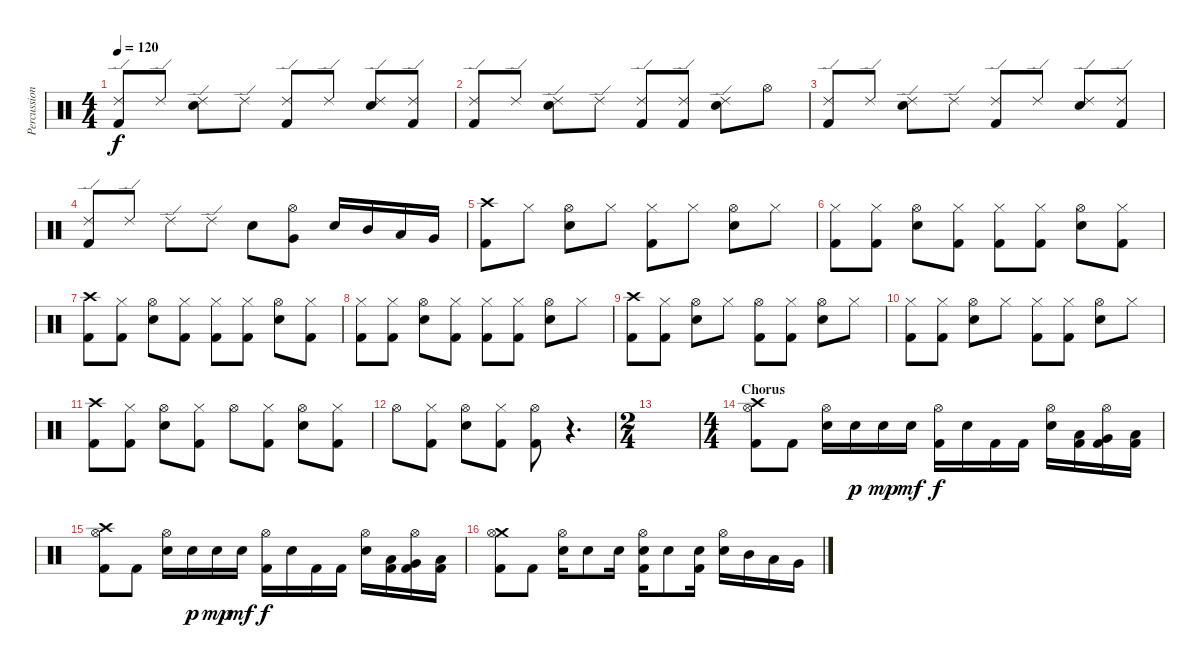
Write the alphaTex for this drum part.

\track ("Percussion" "Percussion") {instrument percussion}
\staff {score}
\articulation defaults
\ts (4 4)
\tempo 120
\clef neutral
\ks c
("Ride (edge) 2" "Kick (hit) 2").8{dy f} "Ride (edge) 2".8 ("Ride (edge) 2" "Electric Snare (hit)").8 "Ride (edge) 2".8 ("Ride (edge) 2" "Kick (hit) 2").8 "Ride (edge) 2".8 ("Ride (edge) 2" "Electric Snare (hit)").8 ("Ride (edge) 2" "Kick (hit) 2").8 |
("Ride (edge) 2" "Kick (hit) 2").8 "Ride (edge) 2".8 ("Ride (edge) 2" "Electric Snare (hit)").8 "Ride (edge) 2".8 ("Ride (edge) 2" "Kick (hit) 2").8 ("Ride (edge) 2" "Kick (hit) 2").8 ("Ride (edge) 2" "Electric Snare (hit)").8 "Hi-Hat (open)".8 |
("Ride (edge) 2" "Kick (hit) 2").8 "Ride (edge) 2".8 ("Ride (edge) 2" "Electric Snare (hit)").8 "Ride (edge) 2".8 ("Ride (edge) 2" "Kick (hit) 2").8 "Ride (edge) 2".8 ("Ride (edge) 2" "Electric Snare (hit)").8 ("Ride (edge) 2" "Kick (hit) 2").8 |
("Ride (edge) 2" "Kick (hit) 2").8 "Ride (edge) 2".8 "Ride (edge) 2".8 "Ride (edge) 2".8 "Electric Snare (hit)".8 ("Hi-Hat (open)" "Very Low Tom (hit)").8 "Electric Snare (hit)".16 "Mid Tom (hit)".16 "Low Tom (hit)".16 "Very Low Tom (hit)".16 |
("Crash high (hit)" "Kick (hit) 2").8 "Hi-Hat (closed)".8 ("Hi-Hat (open)" "Electric Snare (hit)").8 "Hi-Hat (closed)".8 ("Hi-Hat (closed)" "Kick (hit) 2").8 "Hi-Hat (closed)".8 ("Hi-Hat (open)" "Electric Snare (hit)").8 "Hi-Hat (closed)".8 |
("Hi-Hat (closed)" "Kick (hit) 2").8 ("Hi-Hat (closed)" "Kick (hit) 2").8 ("Hi-Hat (open)" "Electric Snare (hit)").8 ("Hi-Hat (closed)" "Kick (hit) 2").8 ("Hi-Hat (closed)" "Kick (hit) 2").8 ("Hi-Hat (closed)" "Kick (hit) 2").8 ("Hi-Hat (open)" "Electric Snare (hit)").8 ("Hi-Hat (closed)" "Kick (hit) 2").8 |
("Crash high (hit)" "Kick (hit) 2").8 ("Hi-Hat (closed)" "Kick (hit) 2").8 ("Hi-Hat (open)" "Electric Snare (hit)").8 ("Hi-Hat (closed)" "Kick (hit) 2").8 ("Hi-Hat (closed)" "Kick (hit) 2").8 ("Hi-Hat (closed)" "Kick (hit) 2").8 ("Hi-Hat (open)" "Electric Snare (hit)").8 ("Hi-Hat (closed)" "Kick (hit) 2").8 |
("Hi-Hat (closed)" "Kick (hit) 2").8 ("Hi-Hat (closed)" "Kick (hit) 2").8 ("Hi-Hat (open)" "Electric Snare (hit)").8 ("Hi-Hat (closed)" "Kick (hit) 2").8 ("Hi-Hat (closed)" "Kick (hit) 2").8 ("Hi-Hat (closed)" "Kick (hit) 2").8 ("Hi-Hat (open)" "Electric Snare (hit)").8 "Hi-Hat (closed)".8 |
("Crash high (hit)" "Kick (hit) 2").8 ("Hi-Hat (closed)" "Kick (hit) 2").8 ("Hi-Hat (open)" "Electric Snare (hit)").8 "Hi-Hat (closed)".8 ("Hi-Hat (open)" "Kick (hit) 2").8 ("Hi-Hat (closed)" "Kick (hit) 2").8 ("Hi-Hat (open)" "Electric Snare (hit)").8 "Hi-Hat (closed)".8 |
("Hi-Hat (closed)" "Kick (hit) 2").8 ("Hi-Hat (closed)" "Kick (hit) 2").8 ("Hi-Hat (open)" "Electric Snare (hit)").8 "Hi-Hat (closed)".8 ("Hi-Hat (closed)" "Kick (hit) 2").8 ("Hi-Hat (closed)" "Kick (hit) 2").8 ("Hi-Hat (open)" "Electric Snare (hit)").8 "Hi-Hat (closed)".8 |
("Crash high (hit)" "Kick (hit) 2").8 ("Hi-Hat (closed)" "Kick (hit) 2").8 ("Hi-Hat (open)" "Electric Snare (hit)").8 ("Hi-Hat (closed)" "Kick (hit) 2").8 "Hi-Hat (open)".8 ("Hi-Hat (closed)" "Kick (hit) 2").8 ("Hi-Hat (open)" "Electric Snare (hit)").8 ("Hi-Hat (closed)" "Kick (hit) 2").8 |
"Hi-Hat (open)".8 ("Hi-Hat (closed)" "Kick (hit) 2").8 ("Hi-Hat (open)" "Electric Snare (hit)").8 ("Hi-Hat (closed)" "Kick (hit) 2").8 ("Hi-Hat (open)" "Kick (hit) 2").8 r.4{d} |
\ts (2 4)
|
\ts (4 4)
\section ("" "Chorus")
("Crash high (hit)" "Hi-Hat (open)" "Kick (hit) 2").8 "Kick (hit) 2".8 ("Hi-Hat (open)" "Electric Snare (hit)").16 "Electric Snare (hit)".16{dy p} "Electric Snare (hit)".16{dy mp} "Electric Snare (hit)".16{dy mf} ("Hi-Hat (open)" "Kick (hit) 2").16{dy f} "Electric Snare (hit)".16 "Kick (hit) 2".16 "Kick (hit) 2".16 ("Hi-Hat (open)" "Electric Snare (hit)").16 ("Low Tom (hit)" "Kick (hit) 2").16 ("Hi-Hat (open)" "Very Low Tom (hit)" "Kick (hit) 2").16 ("Low Floor Tom (hit)" "Kick (hit) 2").16 |
("Crash high (hit)" "Hi-Hat (open)" "Kick (hit) 2").8 "Kick (hit) 2".8 ("Hi-Hat (open)" "Electric Snare (hit)").16 "Electric Snare (hit)".16{dy p} "Electric Snare (hit)".16{dy mp} "Electric Snare (hit)".16{dy mf} ("Hi-Hat (open)" "Kick (hit) 2").16{dy f} "Electric Snare (hit)".16 "Kick (hit) 2".16 "Kick (hit) 2".16 ("Hi-Hat (open)" "Electric Snare (hit)").16 ("Low Tom (hit)" "Kick (hit) 2").16 ("Hi-Hat (open)" "Very Low Tom (hit)" "Kick (hit) 2").16 ("Low Floor Tom (hit)" "Kick (hit) 2").16 |
("Crash medium (hit)" "Hi-Hat (open)" "Kick (hit) 2").8 "Kick (hit) 2".8 ("Hi-Hat (open)" "Electric Snare (hit)").16 "Electric Snare (hit)".8 "Electric Snare (hit)".16 ("Hi-Hat (open)" "Electric Snare (hit)" "Kick (hit) 2").16 "Electric Snare (hit)".8 ("Electric Snare (hit)" "Kick (hit) 2").16 ("Hi-Hat (open)" "Electric Snare (hit)").16 "Mid Tom (hit)".16 "Low Tom (hit)".16 "Very Low Tom (hit)".16
